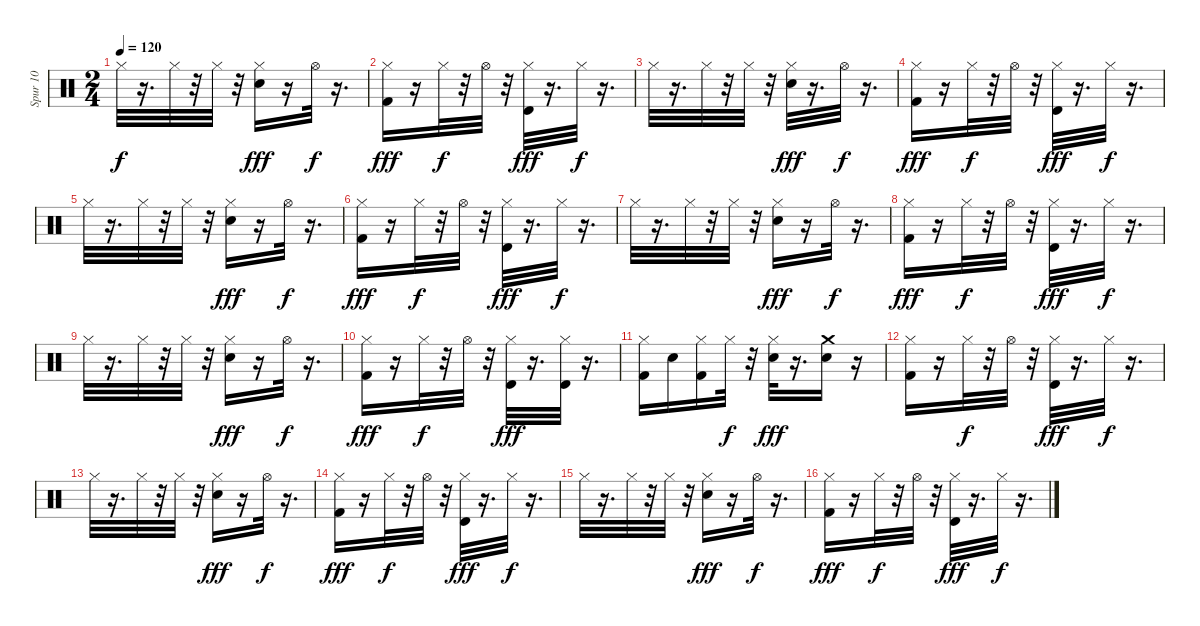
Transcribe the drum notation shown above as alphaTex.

\track ("Spur 10" "Spur 10") {instrument percussion}
\staff {score}
\articulation defaults
\ts (2 4)
\tempo 120
\clef neutral
\ks c "Hi-Hat (closed)".32{dy f}
r.16{d} "Hi-Hat (closed)".32 r.32 "Hi-Hat (closed)".32 r.32 ("Electric Snare (hit)" "Hi-Hat (closed)").16{dy fff} r.16 "Hi-Hat (open)".32{dy f} r.16{d} |
("Kick (hit) 2" "Hi-Hat (closed)").16{dy fff} r.16 "Hi-Hat (closed)".32{dy f} r.32 "Hi-Hat (open)".32 r.32 ("Timbale high (hit)" "Hi-Hat (closed)").32{dy fff} r.16{d} "Hi-Hat (closed)".32{dy f} r.16{d} |
"Hi-Hat (closed)".32 r.16{d} "Hi-Hat (closed)".32 r.32 "Hi-Hat (closed)".32 r.32 ("Electric Snare (hit)" "Hi-Hat (closed)").32{dy fff} r.16{d} "Hi-Hat (open)".32{dy f} r.16{d} |
("Kick (hit) 2" "Hi-Hat (closed)").16{dy fff} r.16 "Hi-Hat (closed)".32{dy f} r.32 "Hi-Hat (open)".32 r.32 ("Timbale high (hit)" "Hi-Hat (closed)").32{dy fff} r.16{d} "Hi-Hat (closed)".32{dy f} r.16{d} |
"Hi-Hat (closed)".32 r.16{d} "Hi-Hat (closed)".32 r.32 "Hi-Hat (closed)".32 r.32 ("Electric Snare (hit)" "Hi-Hat (closed)").16{dy fff} r.16 "Hi-Hat (open)".32{dy f} r.16{d} |
("Kick (hit) 2" "Hi-Hat (closed)").16{dy fff} r.16 "Hi-Hat (closed)".32{dy f} r.32 "Hi-Hat (open)".32 r.32 ("Timbale high (hit)" "Hi-Hat (closed)").32{dy fff} r.16{d} "Hi-Hat (closed)".32{dy f} r.16{d} |
"Hi-Hat (closed)".32 r.16{d} "Hi-Hat (closed)".32 r.32 "Hi-Hat (closed)".32 r.32 ("Electric Snare (hit)" "Hi-Hat (closed)").16{dy fff} r.16 "Hi-Hat (open)".32{dy f} r.16{d} |
("Kick (hit) 2" "Hi-Hat (closed)").16{dy fff} r.16 "Hi-Hat (closed)".32{dy f} r.32 "Hi-Hat (open)".32 r.32 ("Timbale high (hit)" "Hi-Hat (closed)").32{dy fff} r.16{d} "Hi-Hat (closed)".32{dy f} r.16{d} |
"Hi-Hat (closed)".32 r.16{d} "Hi-Hat (closed)".32 r.32 "Hi-Hat (closed)".32 r.32 ("Electric Snare (hit)" "Hi-Hat (closed)").16{dy fff} r.16 "Hi-Hat (open)".32{dy f} r.16{d} |
("Kick (hit) 2" "Hi-Hat (closed)").16{dy fff} r.16 "Hi-Hat (closed)".32{dy f} r.32 "Hi-Hat (open)".32 r.32 ("Timbale high (hit)" "Hi-Hat (closed)").32{dy fff} r.16{d} ("Timbale high (hit)" "Hi-Hat (closed)").32 r.16{d} |
("Kick (hit) 2" "Hi-Hat (closed)").16 "Electric Snare (hit)".16 ("Kick (hit) 2" "Hi-Hat (closed)").16 "Hi-Hat (closed)".32{dy f} r.32 ("Electric Snare (hit)" "Hi-Hat (closed)").32{dy fff} r.16{d} ("Electric Snare (hit)" "Crash medium (hit)").16 r.16 |
("Kick (hit) 2" "Hi-Hat (closed)").16 r.16 "Hi-Hat (closed)".32{dy f} r.32 "Hi-Hat (open)".32 r.32 ("Timbale high (hit)" "Hi-Hat (closed)").32{dy fff} r.16{d} "Hi-Hat (closed)".32{dy f} r.16{d} |
"Hi-Hat (closed)".32 r.16{d} "Hi-Hat (closed)".32 r.32 "Hi-Hat (closed)".32 r.32 ("Electric Snare (hit)" "Hi-Hat (closed)").16{dy fff} r.16 "Hi-Hat (open)".32{dy f} r.16{d} |
("Kick (hit) 2" "Hi-Hat (closed)").16{dy fff} r.16 "Hi-Hat (closed)".32{dy f} r.32 "Hi-Hat (open)".32 r.32 ("Timbale high (hit)" "Hi-Hat (closed)").32{dy fff} r.16{d} "Hi-Hat (closed)".32{dy f} r.16{d} |
"Hi-Hat (closed)".32 r.16{d} "Hi-Hat (closed)".32 r.32 "Hi-Hat (closed)".32 r.32 ("Electric Snare (hit)" "Hi-Hat (closed)").16{dy fff} r.16 "Hi-Hat (open)".32{dy f} r.16{d} |
("Kick (hit) 2" "Hi-Hat (closed)").16{dy fff} r.16 "Hi-Hat (closed)".32{dy f} r.32 "Hi-Hat (open)".32 r.32 ("Timbale high (hit)" "Hi-Hat (closed)").32{dy fff} r.16{d} "Hi-Hat (closed)".32{dy f} r.16{d}
